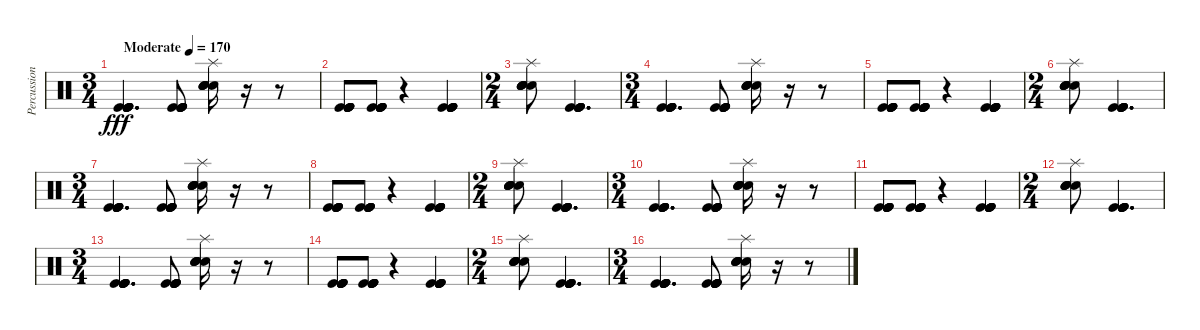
\track ("Percussion" "Percussion") {instrument percussion}
\staff {score}
\articulation defaults
\ts (3 4)
\tempo (170 "Moderate")
\clef neutral
\ks c
("Kick (hit)" "Kick (hit)" "Kick (hit)" "Kick (hit)" "Kick (hit)" "Kick (hit)").4{d dy fff} ("Kick (hit)" "Kick (hit)" "Kick (hit)" "Kick (hit)" "Kick (hit)" "Kick (hit)").8 ("Splash (hit)" "Hand Clap (hit)" "Hand Clap (hit)" "Hand Clap (hit)" "Hand Clap (hit)" "Hand Clap (hit)").16 r.16 r.8 |
("Kick (hit)" "Kick (hit)" "Kick (hit)" "Kick (hit)" "Kick (hit)" "Kick (hit)").8 ("Kick (hit)" "Kick (hit)" "Kick (hit)" "Kick (hit)" "Kick (hit)" "Kick (hit)").8 r.4 ("Kick (hit)" "Kick (hit)" "Kick (hit)" "Kick (hit)" "Kick (hit)" "Kick (hit)").4 |
\ts (2 4)
("Splash (hit)" "Hand Clap (hit)" "Hand Clap (hit)" "Hand Clap (hit)" "Hand Clap (hit)" "Hand Clap (hit)").8 ("Kick (hit)" "Kick (hit)" "Kick (hit)" "Kick (hit)" "Kick (hit)" "Kick (hit)").4{d} |
\ts (3 4)
("Kick (hit)" "Kick (hit)" "Kick (hit)" "Kick (hit)" "Kick (hit)" "Kick (hit)").4{d} ("Kick (hit)" "Kick (hit)" "Kick (hit)" "Kick (hit)" "Kick (hit)" "Kick (hit)").8 ("Splash (hit)" "Hand Clap (hit)" "Hand Clap (hit)" "Hand Clap (hit)" "Hand Clap (hit)" "Hand Clap (hit)").16 r.16 r.8 |
("Kick (hit)" "Kick (hit)" "Kick (hit)" "Kick (hit)" "Kick (hit)" "Kick (hit)").8 ("Kick (hit)" "Kick (hit)" "Kick (hit)" "Kick (hit)" "Kick (hit)" "Kick (hit)").8 r.4 ("Kick (hit)" "Kick (hit)" "Kick (hit)" "Kick (hit)" "Kick (hit)" "Kick (hit)").4 |
\ts (2 4)
("Splash (hit)" "Hand Clap (hit)" "Hand Clap (hit)" "Hand Clap (hit)" "Hand Clap (hit)" "Hand Clap (hit)").8 ("Kick (hit)" "Kick (hit)" "Kick (hit)" "Kick (hit)" "Kick (hit)" "Kick (hit)").4{d} |
\ts (3 4)
("Kick (hit)" "Kick (hit)" "Kick (hit)" "Kick (hit)" "Kick (hit)" "Kick (hit)").4{d} ("Kick (hit)" "Kick (hit)" "Kick (hit)" "Kick (hit)" "Kick (hit)" "Kick (hit)").8 ("Splash (hit)" "Hand Clap (hit)" "Hand Clap (hit)" "Hand Clap (hit)" "Hand Clap (hit)" "Hand Clap (hit)").16 r.16 r.8 |
("Kick (hit)" "Kick (hit)" "Kick (hit)" "Kick (hit)" "Kick (hit)" "Kick (hit)").8 ("Kick (hit)" "Kick (hit)" "Kick (hit)" "Kick (hit)" "Kick (hit)" "Kick (hit)").8 r.4 ("Kick (hit)" "Kick (hit)" "Kick (hit)" "Kick (hit)" "Kick (hit)" "Kick (hit)").4 |
\ts (2 4)
("Splash (hit)" "Hand Clap (hit)" "Hand Clap (hit)" "Hand Clap (hit)" "Hand Clap (hit)" "Hand Clap (hit)").8 ("Kick (hit)" "Kick (hit)" "Kick (hit)" "Kick (hit)" "Kick (hit)" "Kick (hit)").4{d} |
\ts (3 4)
("Kick (hit)" "Kick (hit)" "Kick (hit)" "Kick (hit)" "Kick (hit)" "Kick (hit)").4{d} ("Kick (hit)" "Kick (hit)" "Kick (hit)" "Kick (hit)" "Kick (hit)" "Kick (hit)").8 ("Splash (hit)" "Hand Clap (hit)" "Hand Clap (hit)" "Hand Clap (hit)" "Hand Clap (hit)" "Hand Clap (hit)").16 r.16 r.8 |
("Kick (hit)" "Kick (hit)" "Kick (hit)" "Kick (hit)" "Kick (hit)" "Kick (hit)").8 ("Kick (hit)" "Kick (hit)" "Kick (hit)" "Kick (hit)" "Kick (hit)" "Kick (hit)").8 r.4 ("Kick (hit)" "Kick (hit)" "Kick (hit)" "Kick (hit)" "Kick (hit)" "Kick (hit)").4 |
\ts (2 4)
("Splash (hit)" "Hand Clap (hit)" "Hand Clap (hit)" "Hand Clap (hit)" "Hand Clap (hit)" "Hand Clap (hit)").8 ("Kick (hit)" "Kick (hit)" "Kick (hit)" "Kick (hit)" "Kick (hit)" "Kick (hit)").4{d} |
\ts (3 4)
("Kick (hit)" "Kick (hit)" "Kick (hit)" "Kick (hit)" "Kick (hit)" "Kick (hit)").4{d} ("Kick (hit)" "Kick (hit)" "Kick (hit)" "Kick (hit)" "Kick (hit)" "Kick (hit)").8 ("Splash (hit)" "Hand Clap (hit)" "Hand Clap (hit)" "Hand Clap (hit)" "Hand Clap (hit)" "Hand Clap (hit)").16 r.16 r.8 |
("Kick (hit)" "Kick (hit)" "Kick (hit)" "Kick (hit)" "Kick (hit)" "Kick (hit)").8 ("Kick (hit)" "Kick (hit)" "Kick (hit)" "Kick (hit)" "Kick (hit)" "Kick (hit)").8 r.4 ("Kick (hit)" "Kick (hit)" "Kick (hit)" "Kick (hit)" "Kick (hit)" "Kick (hit)").4 |
\ts (2 4)
("Splash (hit)" "Hand Clap (hit)" "Hand Clap (hit)" "Hand Clap (hit)" "Hand Clap (hit)" "Hand Clap (hit)").8 ("Kick (hit)" "Kick (hit)" "Kick (hit)" "Kick (hit)" "Kick (hit)" "Kick (hit)").4{d} |
\ts (3 4)
("Kick (hit)" "Kick (hit)" "Kick (hit)" "Kick (hit)" "Kick (hit)" "Kick (hit)").4{d} ("Kick (hit)" "Kick (hit)" "Kick (hit)" "Kick (hit)" "Kick (hit)" "Kick (hit)").8 ("Splash (hit)" "Hand Clap (hit)" "Hand Clap (hit)" "Hand Clap (hit)" "Hand Clap (hit)" "Hand Clap (hit)").16 r.16 r.8
